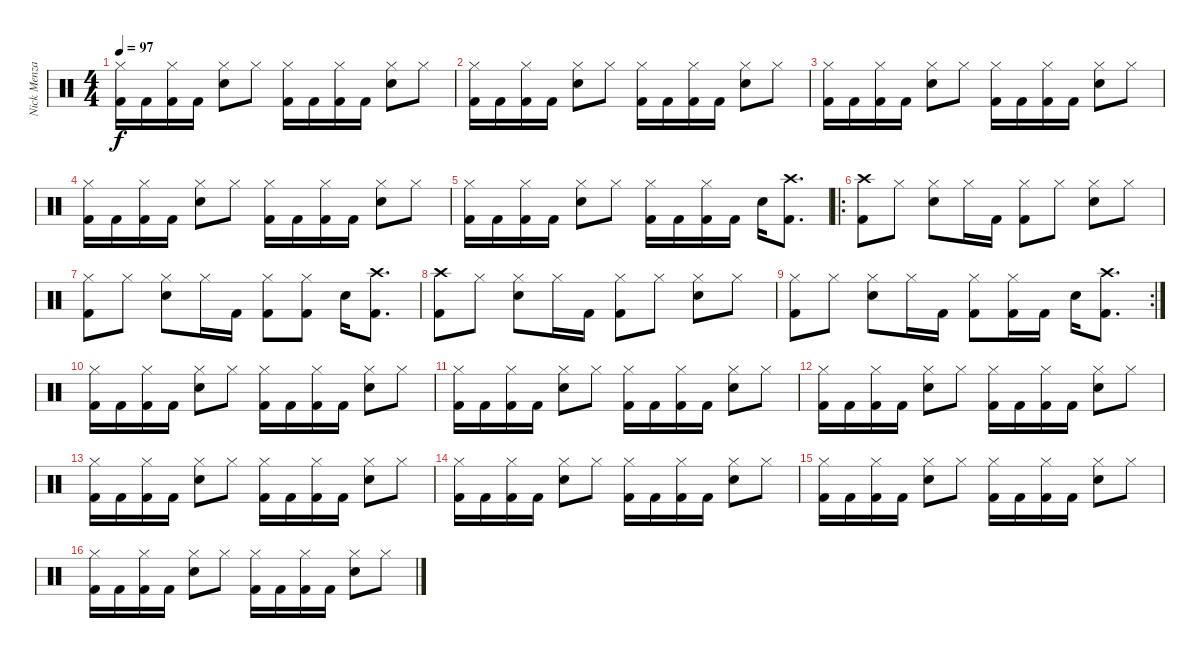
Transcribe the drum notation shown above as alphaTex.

\track ("Nick Menza" "Nick Menza") {instrument percussion}
\staff {score}
\articulation defaults
\ts (4 4)
\tempo 97
\clef neutral
\ks c
("Hi-Hat (closed)" "Kick (hit) 2").16{dy f} "Kick (hit) 2".16 ("Hi-Hat (closed)" "Kick (hit) 2").16 "Kick (hit) 2".16 ("Hi-Hat (closed)" "Electric Snare (hit)").8 "Hi-Hat (closed)".8 ("Hi-Hat (closed)" "Kick (hit) 2").16 "Kick (hit) 2".16 ("Hi-Hat (closed)" "Kick (hit) 2").16 "Kick (hit) 2".16 ("Hi-Hat (closed)" "Electric Snare (hit)").8 "Hi-Hat (closed)".8 |
("Hi-Hat (closed)" "Kick (hit) 2").16 "Kick (hit) 2".16 ("Hi-Hat (closed)" "Kick (hit) 2").16 "Kick (hit) 2".16 ("Hi-Hat (closed)" "Electric Snare (hit)").8 "Hi-Hat (closed)".8 ("Hi-Hat (closed)" "Kick (hit) 2").16 "Kick (hit) 2".16 ("Hi-Hat (closed)" "Kick (hit) 2").16 "Kick (hit) 2".16 ("Hi-Hat (closed)" "Electric Snare (hit)").8 "Hi-Hat (closed)".8 |
("Hi-Hat (closed)" "Kick (hit) 2").16 "Kick (hit) 2".16 ("Hi-Hat (closed)" "Kick (hit) 2").16 "Kick (hit) 2".16 ("Hi-Hat (closed)" "Electric Snare (hit)").8 "Hi-Hat (closed)".8 ("Hi-Hat (closed)" "Kick (hit) 2").16 "Kick (hit) 2".16 ("Hi-Hat (closed)" "Kick (hit) 2").16 "Kick (hit) 2".16 ("Hi-Hat (closed)" "Electric Snare (hit)").8 "Hi-Hat (closed)".8 |
("Hi-Hat (closed)" "Kick (hit) 2").16 "Kick (hit) 2".16 ("Hi-Hat (closed)" "Kick (hit) 2").16 "Kick (hit) 2".16 ("Hi-Hat (closed)" "Electric Snare (hit)").8 "Hi-Hat (closed)".8 ("Hi-Hat (closed)" "Kick (hit) 2").16 "Kick (hit) 2".16 ("Hi-Hat (closed)" "Kick (hit) 2").16 "Kick (hit) 2".16 ("Hi-Hat (closed)" "Electric Snare (hit)").8 "Hi-Hat (closed)".8 |
("Hi-Hat (closed)" "Kick (hit) 2").16 "Kick (hit) 2".16 ("Hi-Hat (closed)" "Kick (hit) 2").16 "Kick (hit) 2".16 ("Hi-Hat (closed)" "Electric Snare (hit)").8 "Hi-Hat (closed)".8 ("Hi-Hat (closed)" "Kick (hit) 2").16 "Kick (hit) 2".16 ("Hi-Hat (closed)" "Kick (hit) 2").16 "Kick (hit) 2".16 "Electric Snare (hit)".16 ("Crash high (hit)" "Kick (hit) 2").8{d} |
\ro
("Crash high (hit)" "Kick (hit) 2").8 "Hi-Hat (closed)".8 ("Hi-Hat (closed)" "Electric Snare (hit)").8 "Hi-Hat (closed)".16 "Kick (hit) 2".16 ("Hi-Hat (closed)" "Kick (hit) 2").8 "Hi-Hat (closed)".8 ("Hi-Hat (closed)" "Electric Snare (hit)").8 "Hi-Hat (closed)".8 |
("Hi-Hat (closed)" "Kick (hit) 2").8 "Hi-Hat (closed)".8 ("Hi-Hat (closed)" "Electric Snare (hit)").8 "Hi-Hat (closed)".16 "Kick (hit) 2".16 ("Hi-Hat (closed)" "Kick (hit) 2").8 ("Hi-Hat (closed)" "Kick (hit) 2").8 "Electric Snare (hit)".16 ("Crash high (hit)" "Kick (hit) 2").8{d} |
("Crash high (hit)" "Kick (hit) 2").8 "Hi-Hat (closed)".8 ("Hi-Hat (closed)" "Electric Snare (hit)").8 "Hi-Hat (closed)".16 "Kick (hit) 2".16 ("Hi-Hat (closed)" "Kick (hit) 2").8 "Hi-Hat (closed)".8 ("Hi-Hat (closed)" "Electric Snare (hit)").8 "Hi-Hat (closed)".8 |
\rc 2
("Hi-Hat (closed)" "Kick (hit) 2").8 "Hi-Hat (closed)".8 ("Hi-Hat (closed)" "Electric Snare (hit)").8 "Hi-Hat (closed)".16 "Kick (hit) 2".16 ("Hi-Hat (closed)" "Kick (hit) 2").8 ("Hi-Hat (closed)" "Kick (hit) 2").16 "Kick (hit) 2".16 "Electric Snare (hit)".16 ("Crash high (hit)" "Kick (hit) 2").8{d} |
("Hi-Hat (closed)" "Kick (hit) 2").16 "Kick (hit) 2".16 ("Hi-Hat (closed)" "Kick (hit) 2").16 "Kick (hit) 2".16 ("Hi-Hat (closed)" "Electric Snare (hit)").8 "Hi-Hat (closed)".8 ("Hi-Hat (closed)" "Kick (hit) 2").16 "Kick (hit) 2".16 ("Hi-Hat (closed)" "Kick (hit) 2").16 "Kick (hit) 2".16 ("Hi-Hat (closed)" "Electric Snare (hit)").8 "Hi-Hat (closed)".8 |
("Hi-Hat (closed)" "Kick (hit) 2").16 "Kick (hit) 2".16 ("Hi-Hat (closed)" "Kick (hit) 2").16 "Kick (hit) 2".16 ("Hi-Hat (closed)" "Electric Snare (hit)").8 "Hi-Hat (closed)".8 ("Hi-Hat (closed)" "Kick (hit) 2").16 "Kick (hit) 2".16 ("Hi-Hat (closed)" "Kick (hit) 2").16 "Kick (hit) 2".16 ("Hi-Hat (closed)" "Electric Snare (hit)").8 "Hi-Hat (closed)".8 |
("Hi-Hat (closed)" "Kick (hit) 2").16 "Kick (hit) 2".16 ("Hi-Hat (closed)" "Kick (hit) 2").16 "Kick (hit) 2".16 ("Hi-Hat (closed)" "Electric Snare (hit)").8 "Hi-Hat (closed)".8 ("Hi-Hat (closed)" "Kick (hit) 2").16 "Kick (hit) 2".16 ("Hi-Hat (closed)" "Kick (hit) 2").16 "Kick (hit) 2".16 ("Hi-Hat (closed)" "Electric Snare (hit)").8 "Hi-Hat (closed)".8 |
("Hi-Hat (closed)" "Kick (hit) 2").16 "Kick (hit) 2".16 ("Hi-Hat (closed)" "Kick (hit) 2").16 "Kick (hit) 2".16 ("Hi-Hat (closed)" "Electric Snare (hit)").8 "Hi-Hat (closed)".8 ("Hi-Hat (closed)" "Kick (hit) 2").16 "Kick (hit) 2".16 ("Hi-Hat (closed)" "Kick (hit) 2").16 "Kick (hit) 2".16 ("Hi-Hat (closed)" "Electric Snare (hit)").8 "Hi-Hat (closed)".8 |
("Hi-Hat (closed)" "Kick (hit) 2").16 "Kick (hit) 2".16 ("Hi-Hat (closed)" "Kick (hit) 2").16 "Kick (hit) 2".16 ("Hi-Hat (closed)" "Electric Snare (hit)").8 "Hi-Hat (closed)".8 ("Hi-Hat (closed)" "Kick (hit) 2").16 "Kick (hit) 2".16 ("Hi-Hat (closed)" "Kick (hit) 2").16 "Kick (hit) 2".16 ("Hi-Hat (closed)" "Electric Snare (hit)").8 "Hi-Hat (closed)".8 |
("Hi-Hat (closed)" "Kick (hit) 2").16 "Kick (hit) 2".16 ("Hi-Hat (closed)" "Kick (hit) 2").16 "Kick (hit) 2".16 ("Hi-Hat (closed)" "Electric Snare (hit)").8 "Hi-Hat (closed)".8 ("Hi-Hat (closed)" "Kick (hit) 2").16 "Kick (hit) 2".16 ("Hi-Hat (closed)" "Kick (hit) 2").16 "Kick (hit) 2".16 ("Hi-Hat (closed)" "Electric Snare (hit)").8 "Hi-Hat (closed)".8 |
("Hi-Hat (closed)" "Kick (hit) 2").16 "Kick (hit) 2".16 ("Hi-Hat (closed)" "Kick (hit) 2").16 "Kick (hit) 2".16 ("Hi-Hat (closed)" "Electric Snare (hit)").8 "Hi-Hat (closed)".8 ("Hi-Hat (closed)" "Kick (hit) 2").16 "Kick (hit) 2".16 ("Hi-Hat (closed)" "Kick (hit) 2").16 "Kick (hit) 2".16 ("Hi-Hat (closed)" "Electric Snare (hit)").8 "Hi-Hat (closed)".8
